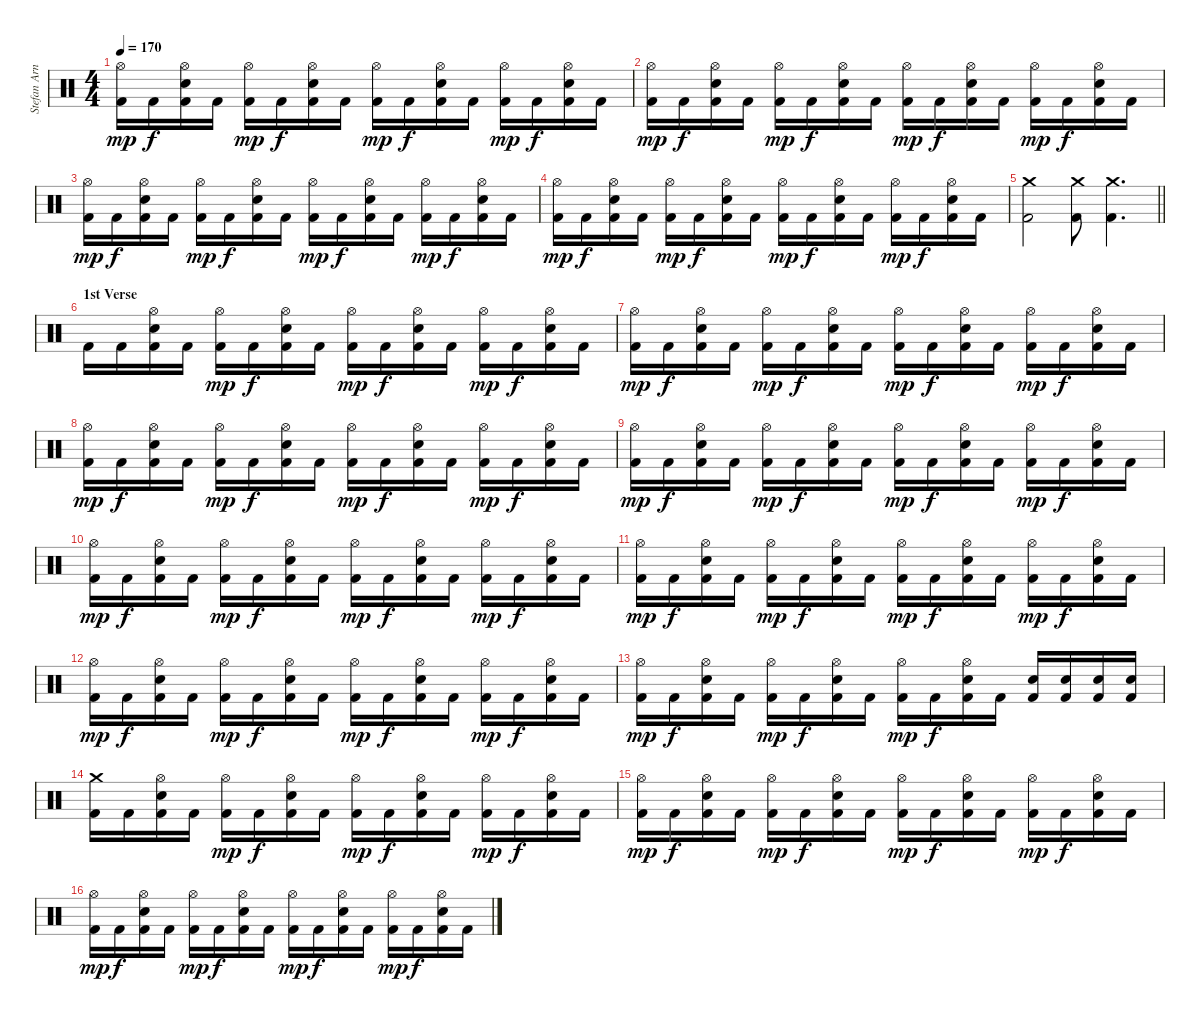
\track ("Stefan Arnold" "Stefan Arn") {instrument percussion}
\staff {score}
\articulation defaults
\ts (4 4)
\tempo 170
\clef neutral
\ks c
("Hi-Hat (open)" "Kick (hit) 2").16{dy mp} "Kick (hit) 2".16{dy f} ("Hi-Hat (open)" "Electric Snare (hit)" "Kick (hit) 2").16 "Kick (hit) 2".16 ("Hi-Hat (open)" "Kick (hit) 2").16{dy mp} "Kick (hit) 2".16{dy f} ("Hi-Hat (open)" "Electric Snare (hit)" "Kick (hit) 2").16 "Kick (hit) 2".16 ("Hi-Hat (open)" "Kick (hit) 2").16{dy mp} "Kick (hit) 2".16{dy f} ("Hi-Hat (open)" "Electric Snare (hit)" "Kick (hit) 2").16 "Kick (hit) 2".16 ("Hi-Hat (open)" "Kick (hit) 2").16{dy mp} "Kick (hit) 2".16{dy f} ("Hi-Hat (open)" "Electric Snare (hit)" "Kick (hit) 2").16 "Kick (hit) 2".16 |
("Hi-Hat (open)" "Kick (hit) 2").16{dy mp} "Kick (hit) 2".16{dy f} ("Hi-Hat (open)" "Electric Snare (hit)" "Kick (hit) 2").16 "Kick (hit) 2".16 ("Hi-Hat (open)" "Kick (hit) 2").16{dy mp} "Kick (hit) 2".16{dy f} ("Hi-Hat (open)" "Electric Snare (hit)" "Kick (hit) 2").16 "Kick (hit) 2".16 ("Hi-Hat (open)" "Kick (hit) 2").16{dy mp} "Kick (hit) 2".16{dy f} ("Hi-Hat (open)" "Electric Snare (hit)" "Kick (hit) 2").16 "Kick (hit) 2".16 ("Hi-Hat (open)" "Kick (hit) 2").16{dy mp} "Kick (hit) 2".16{dy f} ("Hi-Hat (open)" "Electric Snare (hit)" "Kick (hit) 2").16 "Kick (hit) 2".16 |
("Hi-Hat (open)" "Kick (hit) 2").16{dy mp} "Kick (hit) 2".16{dy f} ("Hi-Hat (open)" "Electric Snare (hit)" "Kick (hit) 2").16 "Kick (hit) 2".16 ("Hi-Hat (open)" "Kick (hit) 2").16{dy mp} "Kick (hit) 2".16{dy f} ("Hi-Hat (open)" "Electric Snare (hit)" "Kick (hit) 2").16 "Kick (hit) 2".16 ("Hi-Hat (open)" "Kick (hit) 2").16{dy mp} "Kick (hit) 2".16{dy f} ("Hi-Hat (open)" "Electric Snare (hit)" "Kick (hit) 2").16 "Kick (hit) 2".16 ("Hi-Hat (open)" "Kick (hit) 2").16{dy mp} "Kick (hit) 2".16{dy f} ("Hi-Hat (open)" "Electric Snare (hit)" "Kick (hit) 2").16 "Kick (hit) 2".16 |
("Hi-Hat (open)" "Kick (hit) 2").16{dy mp} "Kick (hit) 2".16{dy f} ("Hi-Hat (open)" "Electric Snare (hit)" "Kick (hit) 2").16 "Kick (hit) 2".16 ("Hi-Hat (open)" "Kick (hit) 2").16{dy mp} "Kick (hit) 2".16{dy f} ("Hi-Hat (open)" "Electric Snare (hit)" "Kick (hit) 2").16 "Kick (hit) 2".16 ("Hi-Hat (open)" "Kick (hit) 2").16{dy mp} "Kick (hit) 2".16{dy f} ("Hi-Hat (open)" "Electric Snare (hit)" "Kick (hit) 2").16 "Kick (hit) 2".16 ("Hi-Hat (open)" "Kick (hit) 2").16{dy mp} "Kick (hit) 2".16{dy f} ("Hi-Hat (open)" "Electric Snare (hit)" "Kick (hit) 2").16 "Kick (hit) 2".16 |
\barLineRight lightlight
("Crash medium (hit)" "Kick (hit) 2").2 ("Crash medium (hit)" "Kick (hit) 2").8 ("Crash medium (hit)" "Kick (hit) 2").4{d} |
\section ("" "1st Verse")
"Kick (hit) 2".16 "Kick (hit) 2".16 ("Hi-Hat (open)" "Electric Snare (hit)" "Kick (hit) 2").16 "Kick (hit) 2".16 ("Hi-Hat (open)" "Kick (hit) 2").16{dy mp} "Kick (hit) 2".16{dy f} ("Hi-Hat (open)" "Electric Snare (hit)" "Kick (hit) 2").16 "Kick (hit) 2".16 ("Hi-Hat (open)" "Kick (hit) 2").16{dy mp} "Kick (hit) 2".16{dy f} ("Hi-Hat (open)" "Electric Snare (hit)" "Kick (hit) 2").16 "Kick (hit) 2".16 ("Hi-Hat (open)" "Kick (hit) 2").16{dy mp} "Kick (hit) 2".16{dy f} ("Hi-Hat (open)" "Electric Snare (hit)" "Kick (hit) 2").16 "Kick (hit) 2".16 |
("Hi-Hat (open)" "Kick (hit) 2").16{dy mp} "Kick (hit) 2".16{dy f} ("Hi-Hat (open)" "Electric Snare (hit)" "Kick (hit) 2").16 "Kick (hit) 2".16 ("Hi-Hat (open)" "Kick (hit) 2").16{dy mp} "Kick (hit) 2".16{dy f} ("Hi-Hat (open)" "Electric Snare (hit)" "Kick (hit) 2").16 "Kick (hit) 2".16 ("Hi-Hat (open)" "Kick (hit) 2").16{dy mp} "Kick (hit) 2".16{dy f} ("Hi-Hat (open)" "Electric Snare (hit)" "Kick (hit) 2").16 "Kick (hit) 2".16 ("Hi-Hat (open)" "Kick (hit) 2").16{dy mp} "Kick (hit) 2".16{dy f} ("Hi-Hat (open)" "Electric Snare (hit)" "Kick (hit) 2").16 "Kick (hit) 2".16 |
("Hi-Hat (open)" "Kick (hit) 2").16{dy mp} "Kick (hit) 2".16{dy f} ("Hi-Hat (open)" "Electric Snare (hit)" "Kick (hit) 2").16 "Kick (hit) 2".16 ("Hi-Hat (open)" "Kick (hit) 2").16{dy mp} "Kick (hit) 2".16{dy f} ("Hi-Hat (open)" "Electric Snare (hit)" "Kick (hit) 2").16 "Kick (hit) 2".16 ("Hi-Hat (open)" "Kick (hit) 2").16{dy mp} "Kick (hit) 2".16{dy f} ("Hi-Hat (open)" "Electric Snare (hit)" "Kick (hit) 2").16 "Kick (hit) 2".16 ("Hi-Hat (open)" "Kick (hit) 2").16{dy mp} "Kick (hit) 2".16{dy f} ("Hi-Hat (open)" "Electric Snare (hit)" "Kick (hit) 2").16 "Kick (hit) 2".16 |
("Hi-Hat (open)" "Kick (hit) 2").16{dy mp} "Kick (hit) 2".16{dy f} ("Hi-Hat (open)" "Electric Snare (hit)" "Kick (hit) 2").16 "Kick (hit) 2".16 ("Hi-Hat (open)" "Kick (hit) 2").16{dy mp} "Kick (hit) 2".16{dy f} ("Hi-Hat (open)" "Electric Snare (hit)" "Kick (hit) 2").16 "Kick (hit) 2".16 ("Hi-Hat (open)" "Kick (hit) 2").16{dy mp} "Kick (hit) 2".16{dy f} ("Hi-Hat (open)" "Electric Snare (hit)" "Kick (hit) 2").16 "Kick (hit) 2".16 ("Hi-Hat (open)" "Kick (hit) 2").16{dy mp} "Kick (hit) 2".16{dy f} ("Hi-Hat (open)" "Electric Snare (hit)" "Kick (hit) 2").16 "Kick (hit) 2".16 |
("Hi-Hat (open)" "Kick (hit) 2").16{dy mp} "Kick (hit) 2".16{dy f} ("Hi-Hat (open)" "Electric Snare (hit)" "Kick (hit) 2").16 "Kick (hit) 2".16 ("Hi-Hat (open)" "Kick (hit) 2").16{dy mp} "Kick (hit) 2".16{dy f} ("Hi-Hat (open)" "Electric Snare (hit)" "Kick (hit) 2").16 "Kick (hit) 2".16 ("Hi-Hat (open)" "Kick (hit) 2").16{dy mp} "Kick (hit) 2".16{dy f} ("Hi-Hat (open)" "Electric Snare (hit)" "Kick (hit) 2").16 "Kick (hit) 2".16 ("Hi-Hat (open)" "Kick (hit) 2").16{dy mp} "Kick (hit) 2".16{dy f} ("Hi-Hat (open)" "Electric Snare (hit)" "Kick (hit) 2").16 "Kick (hit) 2".16 |
("Hi-Hat (open)" "Kick (hit) 2").16{dy mp} "Kick (hit) 2".16{dy f} ("Hi-Hat (open)" "Electric Snare (hit)" "Kick (hit) 2").16 "Kick (hit) 2".16 ("Hi-Hat (open)" "Kick (hit) 2").16{dy mp} "Kick (hit) 2".16{dy f} ("Hi-Hat (open)" "Electric Snare (hit)" "Kick (hit) 2").16 "Kick (hit) 2".16 ("Hi-Hat (open)" "Kick (hit) 2").16{dy mp} "Kick (hit) 2".16{dy f} ("Hi-Hat (open)" "Electric Snare (hit)" "Kick (hit) 2").16 "Kick (hit) 2".16 ("Hi-Hat (open)" "Kick (hit) 2").16{dy mp} "Kick (hit) 2".16{dy f} ("Hi-Hat (open)" "Electric Snare (hit)" "Kick (hit) 2").16 "Kick (hit) 2".16 |
("Hi-Hat (open)" "Kick (hit) 2").16{dy mp} "Kick (hit) 2".16{dy f} ("Hi-Hat (open)" "Electric Snare (hit)" "Kick (hit) 2").16 "Kick (hit) 2".16 ("Hi-Hat (open)" "Kick (hit) 2").16{dy mp} "Kick (hit) 2".16{dy f} ("Hi-Hat (open)" "Electric Snare (hit)" "Kick (hit) 2").16 "Kick (hit) 2".16 ("Hi-Hat (open)" "Kick (hit) 2").16{dy mp} "Kick (hit) 2".16{dy f} ("Hi-Hat (open)" "Electric Snare (hit)" "Kick (hit) 2").16 "Kick (hit) 2".16 ("Hi-Hat (open)" "Kick (hit) 2").16{dy mp} "Kick (hit) 2".16{dy f} ("Hi-Hat (open)" "Electric Snare (hit)" "Kick (hit) 2").16 "Kick (hit) 2".16 |
("Hi-Hat (open)" "Kick (hit) 2").16{dy mp} "Kick (hit) 2".16{dy f} ("Hi-Hat (open)" "Electric Snare (hit)" "Kick (hit) 2").16 "Kick (hit) 2".16 ("Hi-Hat (open)" "Kick (hit) 2").16{dy mp} "Kick (hit) 2".16{dy f} ("Hi-Hat (open)" "Electric Snare (hit)" "Kick (hit) 2").16 "Kick (hit) 2".16 ("Hi-Hat (open)" "Kick (hit) 2").16{dy mp} "Kick (hit) 2".16{dy f} ("Hi-Hat (open)" "Electric Snare (hit)" "Kick (hit) 2").16 "Kick (hit) 2".16 ("Electric Snare (hit)" "Kick (hit) 2").16 ("Electric Snare (hit)" "Kick (hit) 2").16 ("Electric Snare (hit)" "Kick (hit) 2").16 ("Electric Snare (hit)" "Kick (hit) 2").16 |
("Crash medium (hit)" "Kick (hit) 2").16 "Kick (hit) 2".16 ("Hi-Hat (open)" "Electric Snare (hit)" "Kick (hit) 2").16 "Kick (hit) 2".16 ("Hi-Hat (open)" "Kick (hit) 2").16{dy mp} "Kick (hit) 2".16{dy f} ("Hi-Hat (open)" "Electric Snare (hit)" "Kick (hit) 2").16 "Kick (hit) 2".16 ("Hi-Hat (open)" "Kick (hit) 2").16{dy mp} "Kick (hit) 2".16{dy f} ("Hi-Hat (open)" "Electric Snare (hit)" "Kick (hit) 2").16 "Kick (hit) 2".16 ("Hi-Hat (open)" "Kick (hit) 2").16{dy mp} "Kick (hit) 2".16{dy f} ("Hi-Hat (open)" "Electric Snare (hit)" "Kick (hit) 2").16 "Kick (hit) 2".16 |
("Hi-Hat (open)" "Kick (hit) 2").16{dy mp} "Kick (hit) 2".16{dy f} ("Hi-Hat (open)" "Electric Snare (hit)" "Kick (hit) 2").16 "Kick (hit) 2".16 ("Hi-Hat (open)" "Kick (hit) 2").16{dy mp} "Kick (hit) 2".16{dy f} ("Hi-Hat (open)" "Electric Snare (hit)" "Kick (hit) 2").16 "Kick (hit) 2".16 ("Hi-Hat (open)" "Kick (hit) 2").16{dy mp} "Kick (hit) 2".16{dy f} ("Hi-Hat (open)" "Electric Snare (hit)" "Kick (hit) 2").16 "Kick (hit) 2".16 ("Hi-Hat (open)" "Kick (hit) 2").16{dy mp} "Kick (hit) 2".16{dy f} ("Hi-Hat (open)" "Electric Snare (hit)" "Kick (hit) 2").16 "Kick (hit) 2".16 |
("Hi-Hat (open)" "Kick (hit) 2").16{dy mp} "Kick (hit) 2".16{dy f} ("Hi-Hat (open)" "Electric Snare (hit)" "Kick (hit) 2").16 "Kick (hit) 2".16 ("Hi-Hat (open)" "Kick (hit) 2").16{dy mp} "Kick (hit) 2".16{dy f} ("Hi-Hat (open)" "Electric Snare (hit)" "Kick (hit) 2").16 "Kick (hit) 2".16 ("Hi-Hat (open)" "Kick (hit) 2").16{dy mp} "Kick (hit) 2".16{dy f} ("Hi-Hat (open)" "Electric Snare (hit)" "Kick (hit) 2").16 "Kick (hit) 2".16 ("Hi-Hat (open)" "Kick (hit) 2").16{dy mp} "Kick (hit) 2".16{dy f} ("Hi-Hat (open)" "Electric Snare (hit)" "Kick (hit) 2").16 "Kick (hit) 2".16
